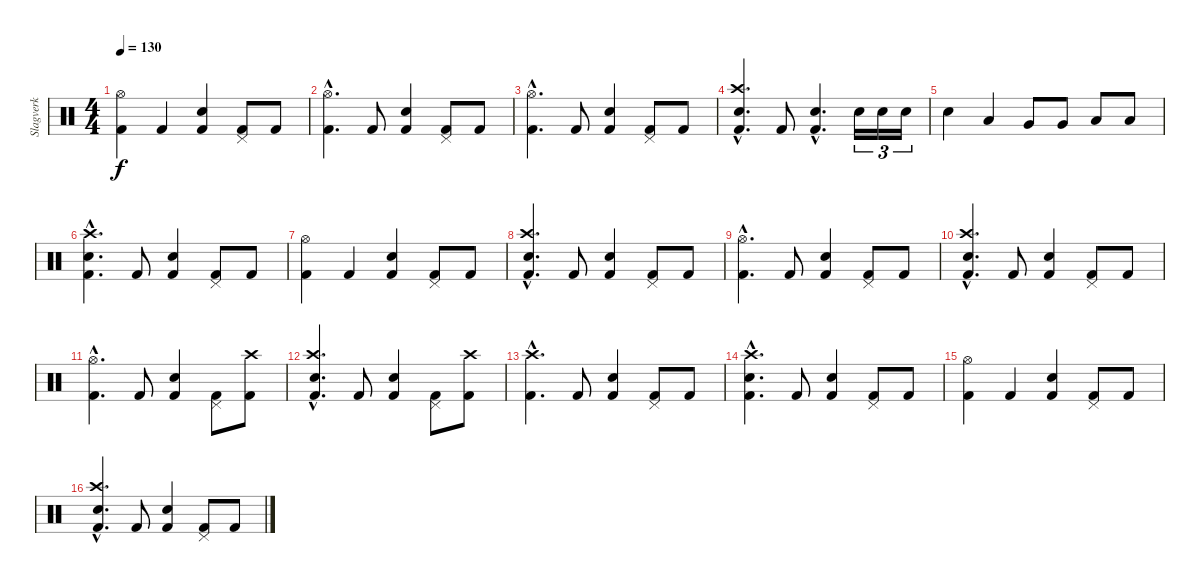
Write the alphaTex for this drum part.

\track ("Slagverk" "Slagverk") {instrument percussion}
\staff {score}
\articulation defaults
\ts (4 4)
\tempo 130
\clef neutral
\ks c
("Hi-Hat (open)" "Kick (hit) 2").4{dy f} "Kick (hit) 2".4 ("Electric Snare (hit)" "Kick (hit) 2").4 ("Pedal Hi-Hat (hit)" "Kick (hit) 2").8 "Kick (hit) 2".8 |
("Hi-Hat (open)"{hac} "Kick (hit) 2"{hac}).4{d} "Kick (hit) 2".8 ("Electric Snare (hit)" "Kick (hit) 2").4 ("Pedal Hi-Hat (hit)" "Kick (hit) 2").8 "Kick (hit) 2".8 |
("Hi-Hat (open)"{hac} "Kick (hit) 2"{hac}).4{d} "Kick (hit) 2".8 ("Electric Snare (hit)" "Kick (hit) 2").4 ("Pedal Hi-Hat (hit)" "Kick (hit) 2").8 "Kick (hit) 2".8 |
("Crash high (hit)"{hac} "Snare (hit) 2"{hac} "Kick (hit) 2"{hac}).4{d} "Kick (hit) 2".8 ("Electric Snare (hit)"{hac} "Kick (hit) 2"{hac}).4{d} "Electric Snare (hit)".16{tu (3 2)} "Electric Snare (hit)".16{tu (3 2)} "Electric Snare (hit)".16{tu (3 2)} |
"Electric Snare (hit)".4 "Low Tom (hit)".4 "Very Low Tom (hit)".8 "Very Low Tom (hit)".8 "Low Floor Tom (hit)".8 "Low Floor Tom (hit)".8 |
("Crash high (hit)"{hac} "Electric Snare (hit)"{hac} "Kick (hit) 2"{hac}).4{d} "Kick (hit) 2".8 ("Electric Snare (hit)" "Kick (hit) 2").4 ("Pedal Hi-Hat (hit)" "Kick (hit) 2").8 "Kick (hit) 2".8 |
("Hi-Hat (open)" "Kick (hit) 2").4 "Kick (hit) 2".4 ("Electric Snare (hit)" "Kick (hit) 2").4 ("Pedal Hi-Hat (hit)" "Kick (hit) 2").8 "Kick (hit) 2".8 |
("Crash high (hit)"{hac} "Snare (hit) 2"{hac} "Kick (hit) 2"{hac}).4{d} "Kick (hit) 2".8 ("Electric Snare (hit)" "Kick (hit) 2").4 ("Pedal Hi-Hat (hit)" "Kick (hit) 2").8 "Kick (hit) 2".8 |
("Hi-Hat (open)"{hac} "Kick (hit) 2"{hac}).4{d} "Kick (hit) 2".8 ("Electric Snare (hit)" "Kick (hit) 2").4 ("Pedal Hi-Hat (hit)" "Kick (hit) 2").8 "Kick (hit) 2".8 |
("Crash high (hit)"{hac} "Snare (hit) 2"{hac} "Kick (hit) 2"{hac}).4{d} "Kick (hit) 2".8 ("Electric Snare (hit)" "Kick (hit) 2").4 ("Pedal Hi-Hat (hit)" "Kick (hit) 2").8 "Kick (hit) 2".8 |
("Hi-Hat (open)"{hac} "Kick (hit) 2"{hac}).4{d} "Kick (hit) 2".8 ("Electric Snare (hit)" "Kick (hit) 2").4 ("Pedal Hi-Hat (hit)" "Kick (hit) 2").8 ("Crash high (hit)" "Kick (hit) 2").8 |
("Crash high (hit)"{hac} "Snare (hit) 2"{hac} "Kick (hit) 2"{hac}).4{d} "Kick (hit) 2".8 ("Electric Snare (hit)" "Kick (hit) 2").4 ("Pedal Hi-Hat (hit)" "Kick (hit) 2").8 ("Crash high (hit)" "Kick (hit) 2").8 |
("Crash high (hit)"{hac} "Kick (hit) 2"{hac}).4{d} "Kick (hit) 2".8 ("Electric Snare (hit)" "Kick (hit) 2").4 ("Pedal Hi-Hat (hit)" "Kick (hit) 2").8 "Kick (hit) 2".8 |
("Crash high (hit)"{hac} "Electric Snare (hit)"{hac} "Kick (hit) 2"{hac}).4{d} "Kick (hit) 2".8 ("Electric Snare (hit)" "Kick (hit) 2").4 ("Pedal Hi-Hat (hit)" "Kick (hit) 2").8 "Kick (hit) 2".8 |
("Hi-Hat (open)" "Kick (hit) 2").4 "Kick (hit) 2".4 ("Electric Snare (hit)" "Kick (hit) 2").4 ("Pedal Hi-Hat (hit)" "Kick (hit) 2").8 "Kick (hit) 2".8 |
("Crash high (hit)"{hac} "Snare (hit) 2"{hac} "Kick (hit) 2"{hac}).4{d} "Kick (hit) 2".8 ("Electric Snare (hit)" "Kick (hit) 2").4 ("Pedal Hi-Hat (hit)" "Kick (hit) 2").8 "Kick (hit) 2".8
